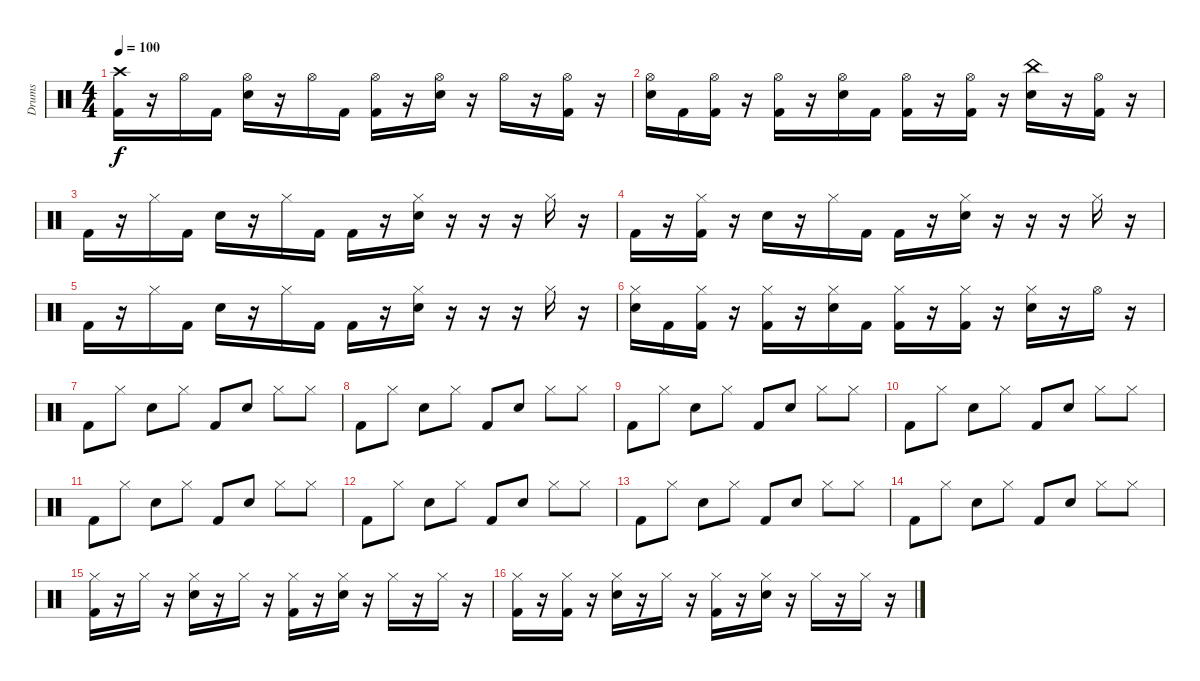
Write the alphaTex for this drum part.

\track ("Drums" "Drums") {instrument percussion}
\staff {score}
\articulation defaults
\ts (4 4)
\tempo 100
\clef neutral
\ks c
("Crash high (hit)" "Kick (hit) 2").16{dy f} r.16 "Hi-Hat (open)".16 "Kick (hit) 2".16 ("Hi-Hat (open)" "Electric Snare (hit)").16 r.16 "Hi-Hat (open)".16 "Kick (hit) 2".16 ("Hi-Hat (open)" "Kick (hit) 2").16 r.16 ("Hi-Hat (open)" "Electric Snare (hit)").16 r.16 "Hi-Hat (open)".16 r.16 ("Hi-Hat (open)" "Kick (hit) 2").16 r.16 |
("Hi-Hat (open)" "Electric Snare (hit)").16 "Kick (hit) 2".16 ("Hi-Hat (open)" "Kick (hit) 2").16 r.16 ("Hi-Hat (open)" "Kick (hit) 2").16 r.16 ("Hi-Hat (open)" "Electric Snare (hit)").16 "Kick (hit) 2".16 ("Hi-Hat (open)" "Kick (hit) 2").16 r.16 ("Hi-Hat (open)" "Kick (hit) 2").16 r.16 ("China (hit)" "Electric Snare (hit)").16 r.16 ("Hi-Hat (open)" "Kick (hit) 2").16 r.16 |
"Kick (hit) 2".16 r.16 "Hi-Hat (closed)".16 "Kick (hit) 2".16 "Hand Clap (hit)".16 r.16 "Hi-Hat (closed)".16 "Kick (hit) 2".16 "Kick (hit) 2".16 r.16 ("Hi-Hat (closed)" "Hand Clap (hit)").16 r.16 r.16 r.16 "Hi-Hat (closed)".16 r.16 |
"Kick (hit) 2".16 r.16 ("Hi-Hat (closed)" "Kick (hit) 2").16 r.16 "Hand Clap (hit)".16 r.16 "Hi-Hat (closed)".16 "Kick (hit) 2".16 "Kick (hit) 2".16 r.16 ("Hi-Hat (closed)" "Hand Clap (hit)").16 r.16 r.16 r.16 "Hi-Hat (closed)".16 r.16 |
"Kick (hit) 2".16 r.16 "Hi-Hat (closed)".16 "Kick (hit) 2".16 "Hand Clap (hit)".16 r.16 "Hi-Hat (closed)".16 "Kick (hit) 2".16 "Kick (hit) 2".16 r.16 ("Hi-Hat (closed)" "Hand Clap (hit)").16 r.16 r.16 r.16 "Hi-Hat (closed)".16 r.16 |
("Hi-Hat (closed)" "Hand Clap (hit)").16 "Kick (hit) 2".16 ("Hi-Hat (closed)" "Kick (hit) 2").16 r.16 ("Hi-Hat (closed)" "Kick (hit) 2").16 r.16 ("Hi-Hat (closed)" "Hand Clap (hit)").16 "Kick (hit) 2".16 ("Hi-Hat (closed)" "Kick (hit) 2").16 r.16 ("Hi-Hat (closed)" "Kick (hit) 2").16 r.16 ("Hi-Hat (closed)" "Hand Clap (hit)").16 r.16 "Hi-Hat (open)".16 r.16 |
"Kick (hit) 2".8 "Hi-Hat (closed)".8 "Hand Clap (hit)".8 "Hi-Hat (closed)".8 "Kick (hit) 2".8 "Hand Clap (hit)".8 "Hi-Hat (closed)".8 "Hi-Hat (closed)".8 |
"Kick (hit) 2".8 "Hi-Hat (closed)".8 "Hand Clap (hit)".8 "Hi-Hat (closed)".8 "Kick (hit) 2".8 "Hand Clap (hit)".8 "Hi-Hat (closed)".8 "Hi-Hat (closed)".8 |
"Kick (hit) 2".8 "Hi-Hat (closed)".8 "Hand Clap (hit)".8 "Hi-Hat (closed)".8 "Kick (hit) 2".8 "Hand Clap (hit)".8 "Hi-Hat (closed)".8 "Hi-Hat (closed)".8 |
"Kick (hit) 2".8 "Hi-Hat (closed)".8 "Hand Clap (hit)".8 "Hi-Hat (closed)".8 "Kick (hit) 2".8 "Hand Clap (hit)".8 "Hi-Hat (closed)".8 "Hi-Hat (closed)".8 |
"Kick (hit) 2".8 "Hi-Hat (closed)".8 "Hand Clap (hit)".8 "Hi-Hat (closed)".8 "Kick (hit) 2".8 "Hand Clap (hit)".8 "Hi-Hat (closed)".8 "Hi-Hat (closed)".8 |
"Kick (hit) 2".8 "Hi-Hat (closed)".8 "Hand Clap (hit)".8 "Hi-Hat (closed)".8 "Kick (hit) 2".8 "Hand Clap (hit)".8 "Hi-Hat (closed)".8 "Hi-Hat (closed)".8 |
"Kick (hit) 2".8 "Hi-Hat (closed)".8 "Hand Clap (hit)".8 "Hi-Hat (closed)".8 "Kick (hit) 2".8 "Hand Clap (hit)".8 "Hi-Hat (closed)".8 "Hi-Hat (closed)".8 |
"Kick (hit) 2".8 "Hi-Hat (closed)".8 "Hand Clap (hit)".8 "Hi-Hat (closed)".8 "Kick (hit) 2".8 "Hand Clap (hit)".8 "Hi-Hat (closed)".8 "Hi-Hat (closed)".8 |
("Hi-Hat (closed)" "Kick (hit) 2").16 r.16 "Hi-Hat (closed)".16 r.16 ("Hi-Hat (closed)" "Hand Clap (hit)").16 r.16 "Hi-Hat (closed)".16 r.16 ("Hi-Hat (closed)" "Kick (hit) 2").16 r.16 ("Hi-Hat (closed)" "Hand Clap (hit)").16 r.16 "Hi-Hat (closed)".16 r.16 "Hi-Hat (closed)".16 r.16 |
("Hi-Hat (closed)" "Kick (hit) 2").16 r.16 ("Hi-Hat (closed)" "Kick (hit) 2").16 r.16 ("Hi-Hat (closed)" "Hand Clap (hit)").16 r.16 "Hi-Hat (closed)".16 r.16 ("Hi-Hat (closed)" "Kick (hit) 2").16 r.16 ("Hi-Hat (closed)" "Hand Clap (hit)").16 r.16 "Hi-Hat (closed)".16 r.16 "Hi-Hat (closed)".16 r.16
